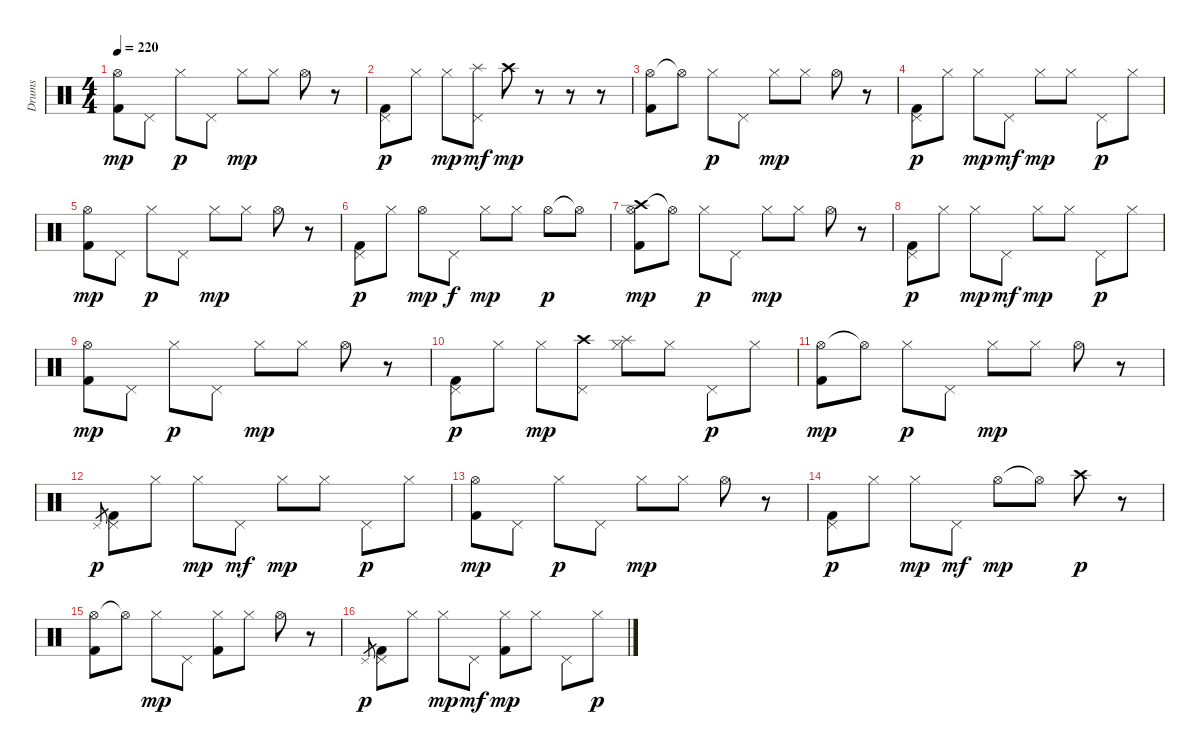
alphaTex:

\bracketExtendMode groupsimilarinstruments
\otherSystemsTrackNameOrientation horizontal
\track ("Drumkit" "Drums") {instrument percussion}
\staff {score}
\articulation defaults
\ts (4 4)
\tempo 220
\clef neutral
\ks c
("Hi-Hat (open)" "Kick (hit) 2").8{dy mp beam Down} "Pedal Hi-Hat (hit)".8{beam Down} "Hi-Hat (closed)".8{dy p beam Down} "Pedal Hi-Hat (hit)".8{beam Down} "Hi-Hat (closed)".8{dy mp beam Down} "Hi-Hat (closed)".8{beam Down} "Hi-Hat (open)".8{beam Down} r.8{beam Down} |
("Pedal Hi-Hat (hit)" "Kick (hit) 2").8{dy p beam Down} "Hi-Hat (closed)".8{beam Down} "Hi-Hat (closed)".8{dy mp beam Down} ("Splash (hit)" "Pedal Hi-Hat (hit)").8{dy mf beam Down} "Crash high (hit)".8{dy mp beam Down} r.8{beam Down} r.8{beam Down} r.8{beam Down} |
("Hi-Hat (open)" "Kick (hit) 2").8{beam Down} "Hi-Hat (open)"{t}.8{beam Down} "Hi-Hat (closed)".8{dy p beam Down} "Pedal Hi-Hat (hit)".8{beam Down} "Hi-Hat (closed)".8{dy mp beam Down} "Hi-Hat (closed)".8{beam Down} "Hi-Hat (open)".8{beam Down} r.8{beam Down} |
("Pedal Hi-Hat (hit)" "Kick (hit) 2").8{dy p beam Down} "Hi-Hat (closed)".8{beam Down} "Hi-Hat (closed)".8{dy mp beam Down} "Pedal Hi-Hat (hit)".8{dy mf beam Down} "Hi-Hat (closed)".8{dy mp beam Down} "Hi-Hat (closed)".8{beam Down} "Pedal Hi-Hat (hit)".8{dy p beam Down} "Hi-Hat (closed)".8{beam Down} |
("Hi-Hat (open)" "Kick (hit) 2").8{dy mp beam Down} "Pedal Hi-Hat (hit)".8{beam Down} "Hi-Hat (closed)".8{dy p beam Down} "Pedal Hi-Hat (hit)".8{beam Down} "Hi-Hat (closed)".8{dy mp beam Down} "Hi-Hat (closed)".8{beam Down} "Hi-Hat (open)".8{beam Down} r.8{beam Down} |
("Pedal Hi-Hat (hit)" "Kick (hit) 2").8{dy p beam Down} "Hi-Hat (closed)".8{beam Down} "Hi-Hat (open)".8{dy mp beam Down} "Pedal Hi-Hat (hit)".8{dy f beam Down} "Hi-Hat (closed)".8{dy mp beam Down} "Hi-Hat (closed)".8{beam Down} "Hi-Hat (open)".8{dy p beam Down} "Hi-Hat (open)"{t}.8{beam Down} |
("Crash high (hit)" "Hi-Hat (open)" "Kick (hit) 2").8{dy mp beam Down} "Hi-Hat (open)"{t}.8{beam Down} "Hi-Hat (closed)".8{dy p beam Down} "Pedal Hi-Hat (hit)".8{beam Down} "Hi-Hat (closed)".8{dy mp beam Down} "Hi-Hat (closed)".8{beam Down} "Hi-Hat (open)".8{beam Down} r.8{beam Down} |
("Pedal Hi-Hat (hit)" "Kick (hit) 2").8{dy p beam Down} "Hi-Hat (closed)".8{beam Down} "Hi-Hat (closed)".8{dy mp beam Down} "Pedal Hi-Hat (hit)".8{dy mf beam Down} "Hi-Hat (closed)".8{dy mp beam Down} "Hi-Hat (closed)".8{beam Down} "Pedal Hi-Hat (hit)".8{dy p beam Down} "Hi-Hat (closed)".8{beam Down} |
("Hi-Hat (open)" "Kick (hit) 2").8{dy mp beam Down} "Pedal Hi-Hat (hit)".8{beam Down} "Hi-Hat (closed)".8{dy p beam Down} "Pedal Hi-Hat (hit)".8{beam Down} "Hi-Hat (closed)".8{dy mp beam Down} "Hi-Hat (closed)".8{beam Down} "Hi-Hat (open)".8{beam Down} r.8{beam Down} |
("Pedal Hi-Hat (hit)" "Kick (hit) 2").8{dy p beam Down} "Hi-Hat (closed)".8{beam Down} "Hi-Hat (closed)".8{dy mp beam Down} ("Crash high (hit)" "Pedal Hi-Hat (hit)").8{beam Down} ("Splash (hit)" "Hi-Hat (closed)").8{beam Down} "Hi-Hat (closed)".8{beam Down} "Pedal Hi-Hat (hit)".8{dy p beam Down} "Hi-Hat (closed)".8{beam Down} |
("Hi-Hat (open)" "Kick (hit) 2").8{dy mp beam Down} "Hi-Hat (open)"{t}.8{beam Down} "Hi-Hat (closed)".8{dy p beam Down} "Pedal Hi-Hat (hit)".8{beam Down} "Hi-Hat (closed)".8{dy mp beam Down} "Hi-Hat (closed)".8{beam Down} "Hi-Hat (open)".8{beam Down} r.8{beam Down} |
"Pedal Hi-Hat (hit)".8{gr dy p beam Up} ("Pedal Hi-Hat (hit)" "Kick (hit) 2").8{beam Down} "Hi-Hat (closed)".8{beam Down} "Hi-Hat (closed)".8{dy mp beam Down} "Pedal Hi-Hat (hit)".8{dy mf beam Down} "Hi-Hat (closed)".8{dy mp beam Down} "Hi-Hat (closed)".8{beam Down} "Pedal Hi-Hat (hit)".8{dy p beam Down} "Hi-Hat (closed)".8{beam Down} |
("Hi-Hat (open)" "Kick (hit) 2").8{dy mp beam Down} "Pedal Hi-Hat (hit)".8{beam Down} "Hi-Hat (closed)".8{dy p beam Down} "Pedal Hi-Hat (hit)".8{beam Down} "Hi-Hat (closed)".8{dy mp beam Down} "Hi-Hat (closed)".8{beam Down} "Hi-Hat (open)".8{beam Down} r.8{beam Down} |
("Pedal Hi-Hat (hit)" "Kick (hit) 2").8{dy p beam Down} "Hi-Hat (closed)".8{beam Down} "Hi-Hat (closed)".8{dy mp beam Down} "Pedal Hi-Hat (hit)".8{dy mf beam Down} "Hi-Hat (open)".8{dy mp beam Down} "Hi-Hat (open)"{t}.8{beam Down} "Crash high (hit)".8{dy p beam Down} r.8{beam Down} |
("Hi-Hat (open)" "Kick (hit) 2").8{beam Down} "Hi-Hat (open)"{t}.8{beam Down} "Hi-Hat (closed)".8{dy mp beam Down} "Pedal Hi-Hat (hit)".8{beam Down} ("Hi-Hat (closed)" "Kick (hit) 2").8{beam Down} "Hi-Hat (closed)".8{beam Down} "Hi-Hat (open)".8{beam Down} r.8{beam Down} |
"Pedal Hi-Hat (hit)".8{gr dy p beam Up} ("Pedal Hi-Hat (hit)" "Kick (hit) 2").8{beam Down} "Hi-Hat (closed)".8{beam Down} "Hi-Hat (closed)".8{dy mp beam Down} "Pedal Hi-Hat (hit)".8{dy mf beam Down} ("Hi-Hat (closed)" "Kick (hit) 2").8{dy mp beam Down} "Hi-Hat (closed)".8{beam Down} "Pedal Hi-Hat (hit)".8{beam Down} "Hi-Hat (closed)".8{dy p beam Down}
